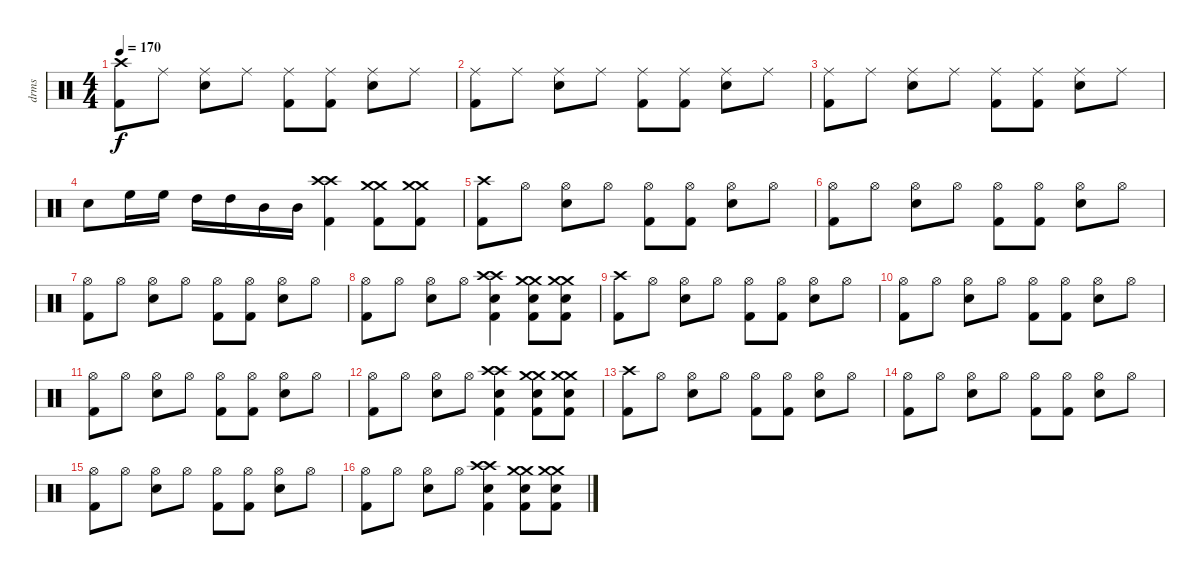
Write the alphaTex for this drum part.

\track ("drms" "drms") {instrument percussion}
\staff {score}
\articulation defaults
\ts (4 4)
\tempo 170
\clef neutral
\ks c
("Crash high (hit)" "Kick (hit) 2").8{dy f} "Ride (middle)".8 ("Ride (middle)" "Snare (hit) 2").8 "Ride (middle)".8 ("Ride (middle)" "Kick (hit) 2").8 ("Ride (middle)" "Kick (hit) 2").8 ("Ride (middle)" "Snare (hit) 2").8 "Ride (middle)".8 |
("Ride (middle)" "Kick (hit) 2").8 "Ride (middle)".8 ("Ride (middle)" "Snare (hit) 2").8 "Ride (middle)".8 ("Ride (middle)" "Kick (hit) 2").8 ("Ride (middle)" "Kick (hit) 2").8 ("Ride (middle)" "Snare (hit) 2").8 "Ride (middle)".8 |
("Ride (middle)" "Kick (hit) 2").8 "Ride (middle)".8 ("Ride (middle)" "Snare (hit) 2").8 "Ride (middle)".8 ("Ride (middle)" "Kick (hit) 2").8 ("Ride (middle)" "Kick (hit) 2").8 ("Ride (middle)" "Snare (hit) 2").8 "Ride (middle)".8 |
"Snare (hit) 2".8 "High Floor Tom (hit)".16 "High Floor Tom (hit)".16 "High Tom (hit)".16 "High Tom (hit)".16 "Mid Tom (hit)".16 "Mid Tom (hit)".16 ("Crash high (hit)" "Crash high (hit)" "Kick (hit) 2").4 ("Crash medium (hit)" "Crash medium (hit)" "Kick (hit) 2").8 ("Crash medium (hit)" "Crash medium (hit)" "Kick (hit) 2").8 |
("Crash high (hit)" "Kick (hit) 2").8 "Hi-Hat (open)".8 ("Hi-Hat (open)" "Snare (hit) 2").8 "Hi-Hat (open)".8 ("Hi-Hat (open)" "Kick (hit) 2").8 ("Hi-Hat (open)" "Kick (hit) 2").8 ("Hi-Hat (open)" "Snare (hit) 2").8 "Hi-Hat (open)".8 |
("Hi-Hat (open)" "Kick (hit) 2").8 "Hi-Hat (open)".8 ("Hi-Hat (open)" "Snare (hit) 2").8 "Hi-Hat (open)".8 ("Hi-Hat (open)" "Kick (hit) 2").8 ("Hi-Hat (open)" "Kick (hit) 2").8 ("Hi-Hat (open)" "Snare (hit) 2").8 "Hi-Hat (open)".8 |
("Hi-Hat (open)" "Kick (hit) 2").8 "Hi-Hat (open)".8 ("Hi-Hat (open)" "Snare (hit) 2").8 "Hi-Hat (open)".8 ("Hi-Hat (open)" "Kick (hit) 2").8 ("Hi-Hat (open)" "Kick (hit) 2").8 ("Hi-Hat (open)" "Snare (hit) 2").8 "Hi-Hat (open)".8 |
("Hi-Hat (open)" "Kick (hit) 2").8 "Hi-Hat (open)".8 ("Hi-Hat (open)" "Snare (hit) 2").8 "Hi-Hat (open)".8 ("Crash high (hit)" "Crash high (hit)" "Snare (hit) 2" "Kick (hit) 2").4 ("Crash medium (hit)" "Crash medium (hit)" "Snare (hit) 2" "Kick (hit) 2").8 ("Crash medium (hit)" "Crash medium (hit)" "Snare (hit) 2" "Kick (hit) 2").8 |
("Crash high (hit)" "Kick (hit) 2").8 "Hi-Hat (open)".8 ("Hi-Hat (open)" "Snare (hit) 2").8 "Hi-Hat (open)".8 ("Hi-Hat (open)" "Kick (hit) 2").8 ("Hi-Hat (open)" "Kick (hit) 2").8 ("Hi-Hat (open)" "Snare (hit) 2").8 "Hi-Hat (open)".8 |
("Hi-Hat (open)" "Kick (hit) 2").8 "Hi-Hat (open)".8 ("Hi-Hat (open)" "Snare (hit) 2").8 "Hi-Hat (open)".8 ("Hi-Hat (open)" "Kick (hit) 2").8 ("Hi-Hat (open)" "Kick (hit) 2").8 ("Hi-Hat (open)" "Snare (hit) 2").8 "Hi-Hat (open)".8 |
("Hi-Hat (open)" "Kick (hit) 2").8 "Hi-Hat (open)".8 ("Hi-Hat (open)" "Snare (hit) 2").8 "Hi-Hat (open)".8 ("Hi-Hat (open)" "Kick (hit) 2").8 ("Hi-Hat (open)" "Kick (hit) 2").8 ("Hi-Hat (open)" "Snare (hit) 2").8 "Hi-Hat (open)".8 |
("Hi-Hat (open)" "Kick (hit) 2").8 "Hi-Hat (open)".8 ("Hi-Hat (open)" "Snare (hit) 2").8 "Hi-Hat (open)".8 ("Crash high (hit)" "Crash high (hit)" "Snare (hit) 2" "Kick (hit) 2").4 ("Crash medium (hit)" "Crash medium (hit)" "Snare (hit) 2" "Kick (hit) 2").8 ("Crash medium (hit)" "Crash medium (hit)" "Snare (hit) 2" "Kick (hit) 2").8 |
("Crash high (hit)" "Kick (hit) 2").8 "Hi-Hat (open)".8 ("Hi-Hat (open)" "Snare (hit) 2").8 "Hi-Hat (open)".8 ("Hi-Hat (open)" "Kick (hit) 2").8 ("Hi-Hat (open)" "Kick (hit) 2").8 ("Hi-Hat (open)" "Snare (hit) 2").8 "Hi-Hat (open)".8 |
("Hi-Hat (open)" "Kick (hit) 2").8 "Hi-Hat (open)".8 ("Hi-Hat (open)" "Snare (hit) 2").8 "Hi-Hat (open)".8 ("Hi-Hat (open)" "Kick (hit) 2").8 ("Hi-Hat (open)" "Kick (hit) 2").8 ("Hi-Hat (open)" "Snare (hit) 2").8 "Hi-Hat (open)".8 |
("Hi-Hat (open)" "Kick (hit) 2").8 "Hi-Hat (open)".8 ("Hi-Hat (open)" "Snare (hit) 2").8 "Hi-Hat (open)".8 ("Hi-Hat (open)" "Kick (hit) 2").8 ("Hi-Hat (open)" "Kick (hit) 2").8 ("Hi-Hat (open)" "Snare (hit) 2").8 "Hi-Hat (open)".8 |
("Hi-Hat (open)" "Kick (hit) 2").8 "Hi-Hat (open)".8 ("Hi-Hat (open)" "Snare (hit) 2").8 "Hi-Hat (open)".8 ("Crash high (hit)" "Crash high (hit)" "Snare (hit) 2" "Kick (hit) 2").4 ("Crash medium (hit)" "Crash medium (hit)" "Snare (hit) 2" "Kick (hit) 2").8 ("Crash medium (hit)" "Crash medium (hit)" "Snare (hit) 2" "Kick (hit) 2").8
